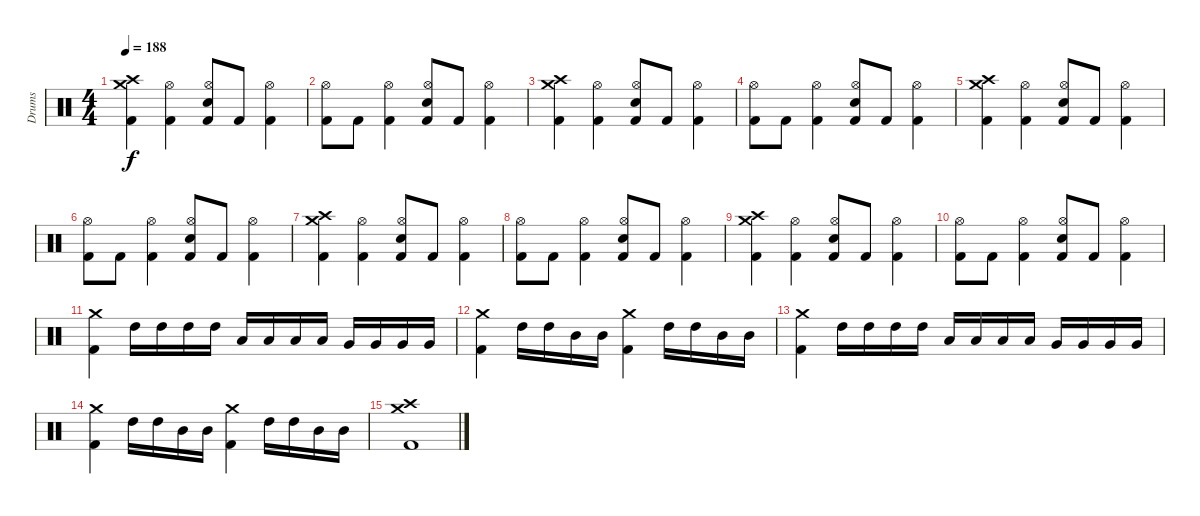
\track ("Drums" "Drums") {instrument percussion}
\staff {score}
\articulation defaults
\ts (4 4)
\tempo 188
\clef neutral
\ks c
("Crash medium (hit)" "Crash high (hit)" "Kick (hit) 2").4{dy f} ("Hi-Hat (open)" "Kick (hit) 2").4 ("Hi-Hat (open)" "Snare (hit) 2" "Kick (hit) 2").8 "Kick (hit) 2".8 ("Hi-Hat (open)" "Kick (hit) 2").4 |
("Hi-Hat (open)" "Kick (hit) 2").8 "Kick (hit) 2".8 ("Hi-Hat (open)" "Kick (hit) 2").4 ("Hi-Hat (open)" "Snare (hit) 2" "Kick (hit) 2").8 "Kick (hit) 2".8 ("Hi-Hat (open)" "Kick (hit) 2").4 |
("Crash medium (hit)" "Crash high (hit)" "Kick (hit) 2").4 ("Hi-Hat (open)" "Kick (hit) 2").4 ("Hi-Hat (open)" "Snare (hit) 2" "Kick (hit) 2").8 "Kick (hit) 2".8 ("Hi-Hat (open)" "Kick (hit) 2").4 |
("Hi-Hat (open)" "Kick (hit) 2").8 "Kick (hit) 2".8 ("Hi-Hat (open)" "Kick (hit) 2").4 ("Hi-Hat (open)" "Snare (hit) 2" "Kick (hit) 2").8 "Kick (hit) 2".8 ("Hi-Hat (open)" "Kick (hit) 2").4 |
("Crash medium (hit)" "Crash high (hit)" "Kick (hit) 2").4 ("Hi-Hat (open)" "Kick (hit) 2").4 ("Hi-Hat (open)" "Snare (hit) 2" "Kick (hit) 2").8 "Kick (hit) 2".8 ("Hi-Hat (open)" "Kick (hit) 2").4 |
("Hi-Hat (open)" "Kick (hit) 2").8 "Kick (hit) 2".8 ("Hi-Hat (open)" "Kick (hit) 2").4 ("Hi-Hat (open)" "Snare (hit) 2" "Kick (hit) 2").8 "Kick (hit) 2".8 ("Hi-Hat (open)" "Kick (hit) 2").4 |
("Crash medium (hit)" "Crash high (hit)" "Kick (hit) 2").4 ("Hi-Hat (open)" "Kick (hit) 2").4 ("Hi-Hat (open)" "Snare (hit) 2" "Kick (hit) 2").8 "Kick (hit) 2".8 ("Hi-Hat (open)" "Kick (hit) 2").4 |
("Hi-Hat (open)" "Kick (hit) 2").8 "Kick (hit) 2".8 ("Hi-Hat (open)" "Kick (hit) 2").4 ("Hi-Hat (open)" "Snare (hit) 2" "Kick (hit) 2").8 "Kick (hit) 2".8 ("Hi-Hat (open)" "Kick (hit) 2").4 |
("Crash medium (hit)" "Crash high (hit)" "Kick (hit) 2").4 ("Hi-Hat (open)" "Kick (hit) 2").4 ("Hi-Hat (open)" "Snare (hit) 2" "Kick (hit) 2").8 "Kick (hit) 2".8 ("Hi-Hat (open)" "Kick (hit) 2").4 |
("Hi-Hat (open)" "Kick (hit) 2").8 "Kick (hit) 2".8 ("Hi-Hat (open)" "Kick (hit) 2").4 ("Hi-Hat (open)" "Snare (hit) 2" "Kick (hit) 2").8 "Kick (hit) 2".8 ("Hi-Hat (open)" "Kick (hit) 2").4 |
("Crash medium (hit)" "Kick (hit) 2").4 "High Tom (hit)".16 "High Tom (hit)".16 "High Tom (hit)".16 "High Tom (hit)".16 "Low Tom (hit)".16 "Low Tom (hit)".16 "Low Tom (hit)".16 "Low Tom (hit)".16 "Very Low Tom (hit)".16 "Very Low Tom (hit)".16 "Very Low Tom (hit)".16 "Very Low Tom (hit)".16 |
("Crash medium (hit)" "Kick (hit) 2").4 "High Tom (hit)".16 "High Tom (hit)".16 "Mid Tom (hit)".16 "Mid Tom (hit)".16 ("Crash medium (hit)" "Kick (hit) 2").4 "High Tom (hit)".16 "High Tom (hit)".16 "Mid Tom (hit)".16 "Mid Tom (hit)".16 |
("Crash medium (hit)" "Kick (hit) 2").4 "High Tom (hit)".16 "High Tom (hit)".16 "High Tom (hit)".16 "High Tom (hit)".16 "Low Tom (hit)".16 "Low Tom (hit)".16 "Low Tom (hit)".16 "Low Tom (hit)".16 "Very Low Tom (hit)".16 "Very Low Tom (hit)".16 "Very Low Tom (hit)".16 "Very Low Tom (hit)".16 |
("Crash medium (hit)" "Kick (hit) 2").4 "High Tom (hit)".16 "High Tom (hit)".16 "Mid Tom (hit)".16 "Mid Tom (hit)".16 ("Crash medium (hit)" "Kick (hit) 2").4 "High Tom (hit)".16 "High Tom (hit)".16 "Mid Tom (hit)".16 "Mid Tom (hit)".16 |
("Crash medium (hit)" "Crash high (hit)" "Kick (hit) 2").1
